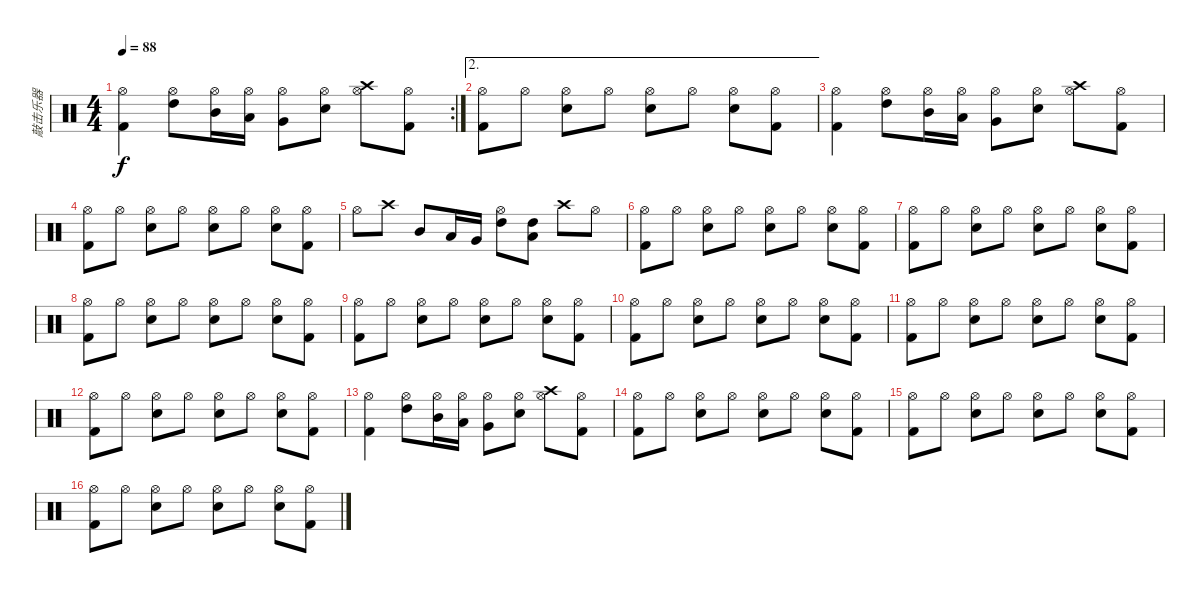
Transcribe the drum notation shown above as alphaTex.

\track ("敲击乐器" "敲击乐器") {instrument percussion}
\staff {score}
\articulation defaults
\rc 2
\ts (4 4)
\tempo 88
\clef neutral
\ks c
("Kick (hit) 2" "Hi-Hat (open)").4{dy f} ("High Tom (hit)" "Hi-Hat (open)").8 ("Mid Tom (hit)" "Hi-Hat (open)").16 ("Low Tom (hit)" "Hi-Hat (open)").16 ("Very Low Tom (hit)" "Hi-Hat (open)").8 ("Snare (hit) 2" "Hi-Hat (open)").8 ("Crash high (hit)" "Hi-Hat (open)").8 ("Kick (hit) 2" "Hi-Hat (open)").8 |
\ae 2
("Kick (hit) 2" "Hi-Hat (open)").8 "Hi-Hat (open)".8 ("Hand Clap (hit)" "Hi-Hat (open)").8 "Hi-Hat (open)".8 ("Electric Snare (hit)" "Hi-Hat (open)").8 "Hi-Hat (open)".8 ("Hand Clap (hit)" "Hi-Hat (open)").8 ("Kick (hit) 2" "Hi-Hat (open)").8 |
("Kick (hit) 2" "Hi-Hat (open)").4 ("High Tom (hit)" "Hi-Hat (open)").8 ("Mid Tom (hit)" "Hi-Hat (open)").16 ("Low Tom (hit)" "Hi-Hat (open)").16 ("Very Low Tom (hit)" "Hi-Hat (open)").8 ("Snare (hit) 2" "Hi-Hat (open)").8 ("Crash high (hit)" "Hi-Hat (open)").8 ("Kick (hit) 2" "Hi-Hat (open)").8 |
("Kick (hit) 2" "Hi-Hat (open)").8 "Hi-Hat (open)".8 ("Hand Clap (hit)" "Hi-Hat (open)").8 "Hi-Hat (open)".8 ("Electric Snare (hit)" "Hi-Hat (open)").8 "Hi-Hat (open)".8 ("Hand Clap (hit)" "Hi-Hat (open)").8 ("Kick (hit) 2" "Hi-Hat (open)").8 |
"Hi-Hat (open)".8 "Crash high (hit)".8 "Mid Tom (hit)".8 "Low Tom (hit)".16 "Very Low Tom (hit)".16 ("High Tom (hit)" "Hi-Hat (open)").8 ("High Tom (hit)" "Low Tom (hit)").8 "Crash high (hit)".8 "Hi-Hat (open)".8 |
("Kick (hit) 2" "Hi-Hat (open)").8 "Hi-Hat (open)".8 ("Hand Clap (hit)" "Hi-Hat (open)").8 "Hi-Hat (open)".8 ("Electric Snare (hit)" "Hi-Hat (open)").8 "Hi-Hat (open)".8 ("Hand Clap (hit)" "Hi-Hat (open)").8 ("Kick (hit) 2" "Hi-Hat (open)").8 |
("Kick (hit) 2" "Hi-Hat (open)").8 "Hi-Hat (open)".8 ("Hand Clap (hit)" "Hi-Hat (open)").8 "Hi-Hat (open)".8 ("Electric Snare (hit)" "Hi-Hat (open)").8 "Hi-Hat (open)".8 ("Hand Clap (hit)" "Hi-Hat (open)").8 ("Kick (hit) 2" "Hi-Hat (open)").8 |
("Kick (hit) 2" "Hi-Hat (open)").8 "Hi-Hat (open)".8 ("Hand Clap (hit)" "Hi-Hat (open)").8 "Hi-Hat (open)".8 ("Electric Snare (hit)" "Hi-Hat (open)").8 "Hi-Hat (open)".8 ("Hand Clap (hit)" "Hi-Hat (open)").8 ("Kick (hit) 2" "Hi-Hat (open)").8 |
("Kick (hit) 2" "Hi-Hat (open)").8 "Hi-Hat (open)".8 ("Hand Clap (hit)" "Hi-Hat (open)").8 "Hi-Hat (open)".8 ("Electric Snare (hit)" "Hi-Hat (open)").8 "Hi-Hat (open)".8 ("Hand Clap (hit)" "Hi-Hat (open)").8 ("Kick (hit) 2" "Hi-Hat (open)").8 |
("Kick (hit) 2" "Hi-Hat (open)").8 "Hi-Hat (open)".8 ("Hand Clap (hit)" "Hi-Hat (open)").8 "Hi-Hat (open)".8 ("Electric Snare (hit)" "Hi-Hat (open)").8 "Hi-Hat (open)".8 ("Hand Clap (hit)" "Hi-Hat (open)").8 ("Kick (hit) 2" "Hi-Hat (open)").8 |
("Kick (hit) 2" "Hi-Hat (open)").8 "Hi-Hat (open)".8 ("Hand Clap (hit)" "Hi-Hat (open)").8 "Hi-Hat (open)".8 ("Electric Snare (hit)" "Hi-Hat (open)").8 "Hi-Hat (open)".8 ("Hand Clap (hit)" "Hi-Hat (open)").8 ("Kick (hit) 2" "Hi-Hat (open)").8 |
("Kick (hit) 2" "Hi-Hat (open)").8 "Hi-Hat (open)".8 ("Hand Clap (hit)" "Hi-Hat (open)").8 "Hi-Hat (open)".8 ("Electric Snare (hit)" "Hi-Hat (open)").8 "Hi-Hat (open)".8 ("Hand Clap (hit)" "Hi-Hat (open)").8 ("Kick (hit) 2" "Hi-Hat (open)").8 |
("Kick (hit) 2" "Hi-Hat (open)").4 ("High Tom (hit)" "Hi-Hat (open)").8 ("Mid Tom (hit)" "Hi-Hat (open)").16 ("Low Tom (hit)" "Hi-Hat (open)").16 ("Very Low Tom (hit)" "Hi-Hat (open)").8 ("Snare (hit) 2" "Hi-Hat (open)").8 ("Crash high (hit)" "Hi-Hat (open)").8 ("Kick (hit) 2" "Hi-Hat (open)").8 |
("Kick (hit) 2" "Hi-Hat (open)").8 "Hi-Hat (open)".8 ("Hand Clap (hit)" "Hi-Hat (open)").8 "Hi-Hat (open)".8 ("Electric Snare (hit)" "Hi-Hat (open)").8 "Hi-Hat (open)".8 ("Hand Clap (hit)" "Hi-Hat (open)").8 ("Kick (hit) 2" "Hi-Hat (open)").8 |
("Kick (hit) 2" "Hi-Hat (open)").8 "Hi-Hat (open)".8 ("Hand Clap (hit)" "Hi-Hat (open)").8 "Hi-Hat (open)".8 ("Electric Snare (hit)" "Hi-Hat (open)").8 "Hi-Hat (open)".8 ("Hand Clap (hit)" "Hi-Hat (open)").8 ("Kick (hit) 2" "Hi-Hat (open)").8 |
("Kick (hit) 2" "Hi-Hat (open)").8 "Hi-Hat (open)".8 ("Hand Clap (hit)" "Hi-Hat (open)").8 "Hi-Hat (open)".8 ("Electric Snare (hit)" "Hi-Hat (open)").8 "Hi-Hat (open)".8 ("Hand Clap (hit)" "Hi-Hat (open)").8 ("Kick (hit) 2" "Hi-Hat (open)").8
